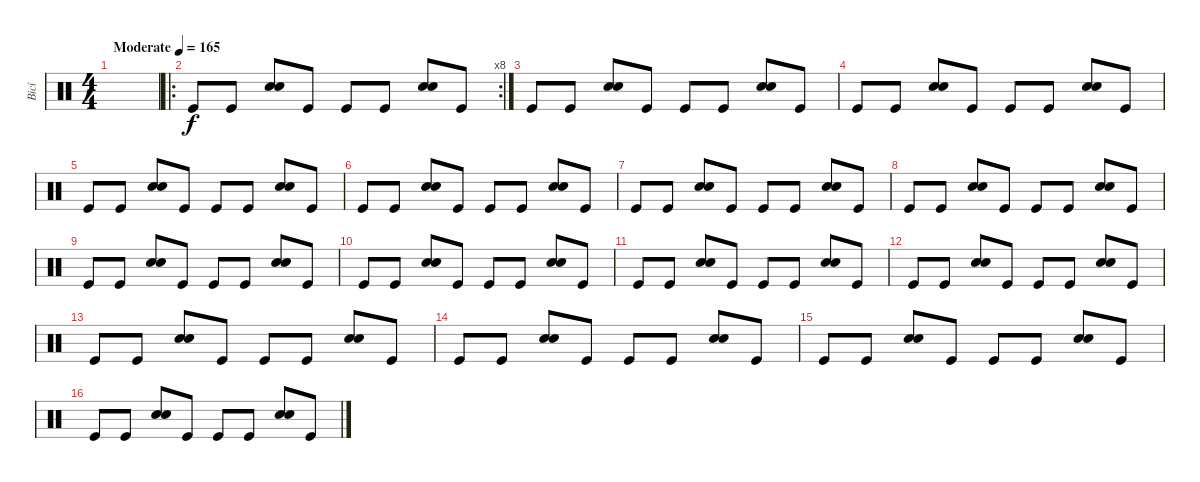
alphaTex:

\track ("Bicí" "Bicí") {instrument percussion}
\staff {score}
\articulation defaults
\ts (4 4)
\tempo (165 "Moderate")
\clef neutral
\ks c
|
\ro
\rc 8 "Kick (hit)".8 "Kick (hit)".8
("Hand Clap (hit)" "Electric Snare (hit)").8 "Kick (hit)".8 "Kick (hit)".8 "Kick (hit)".8 ("Hand Clap (hit)" "Electric Snare (hit)").8 "Kick (hit)".8 |
"Kick (hit)".8 "Kick (hit)".8 ("Hand Clap (hit)" "Electric Snare (hit)").8 "Kick (hit)".8 "Kick (hit)".8 "Kick (hit)".8 ("Hand Clap (hit)" "Electric Snare (hit)").8 "Kick (hit)".8 |
"Kick (hit)".8 "Kick (hit)".8 ("Hand Clap (hit)" "Electric Snare (hit)").8 "Kick (hit)".8 "Kick (hit)".8 "Kick (hit)".8 ("Hand Clap (hit)" "Electric Snare (hit)").8 "Kick (hit)".8 |
"Kick (hit)".8 "Kick (hit)".8 ("Hand Clap (hit)" "Electric Snare (hit)").8 "Kick (hit)".8 "Kick (hit)".8 "Kick (hit)".8 ("Hand Clap (hit)" "Electric Snare (hit)").8 "Kick (hit)".8 |
"Kick (hit)".8 "Kick (hit)".8 ("Hand Clap (hit)" "Electric Snare (hit)").8 "Kick (hit)".8 "Kick (hit)".8 "Kick (hit)".8 ("Hand Clap (hit)" "Electric Snare (hit)").8 "Kick (hit)".8 |
"Kick (hit)".8 "Kick (hit)".8 ("Hand Clap (hit)" "Electric Snare (hit)").8 "Kick (hit)".8 "Kick (hit)".8 "Kick (hit)".8 ("Hand Clap (hit)" "Electric Snare (hit)").8 "Kick (hit)".8 |
"Kick (hit)".8 "Kick (hit)".8 ("Hand Clap (hit)" "Electric Snare (hit)").8 "Kick (hit)".8 "Kick (hit)".8 "Kick (hit)".8 ("Hand Clap (hit)" "Electric Snare (hit)").8 "Kick (hit)".8 |
"Kick (hit)".8 "Kick (hit)".8 ("Hand Clap (hit)" "Electric Snare (hit)").8 "Kick (hit)".8 "Kick (hit)".8 "Kick (hit)".8 ("Hand Clap (hit)" "Electric Snare (hit)").8 "Kick (hit)".8 |
"Kick (hit)".8 "Kick (hit)".8 ("Hand Clap (hit)" "Electric Snare (hit)").8 "Kick (hit)".8 "Kick (hit)".8 "Kick (hit)".8 ("Hand Clap (hit)" "Electric Snare (hit)").8 "Kick (hit)".8 |
"Kick (hit)".8 "Kick (hit)".8 ("Hand Clap (hit)" "Electric Snare (hit)").8 "Kick (hit)".8 "Kick (hit)".8 "Kick (hit)".8 ("Hand Clap (hit)" "Electric Snare (hit)").8 "Kick (hit)".8 |
"Kick (hit)".8 "Kick (hit)".8 ("Hand Clap (hit)" "Electric Snare (hit)").8 "Kick (hit)".8 "Kick (hit)".8 "Kick (hit)".8 ("Hand Clap (hit)" "Electric Snare (hit)").8 "Kick (hit)".8 |
"Kick (hit)".8 "Kick (hit)".8 ("Hand Clap (hit)" "Electric Snare (hit)").8 "Kick (hit)".8 "Kick (hit)".8 "Kick (hit)".8 ("Hand Clap (hit)" "Electric Snare (hit)").8 "Kick (hit)".8 |
"Kick (hit)".8 "Kick (hit)".8 ("Hand Clap (hit)" "Electric Snare (hit)").8 "Kick (hit)".8 "Kick (hit)".8 "Kick (hit)".8 ("Hand Clap (hit)" "Electric Snare (hit)").8 "Kick (hit)".8 |
"Kick (hit)".8 "Kick (hit)".8 ("Hand Clap (hit)" "Electric Snare (hit)").8 "Kick (hit)".8 "Kick (hit)".8 "Kick (hit)".8 ("Hand Clap (hit)" "Electric Snare (hit)").8 "Kick (hit)".8 |
"Kick (hit)".8 "Kick (hit)".8 ("Hand Clap (hit)" "Electric Snare (hit)").8 "Kick (hit)".8 "Kick (hit)".8 "Kick (hit)".8 ("Hand Clap (hit)" "Electric Snare (hit)").8 "Kick (hit)".8
